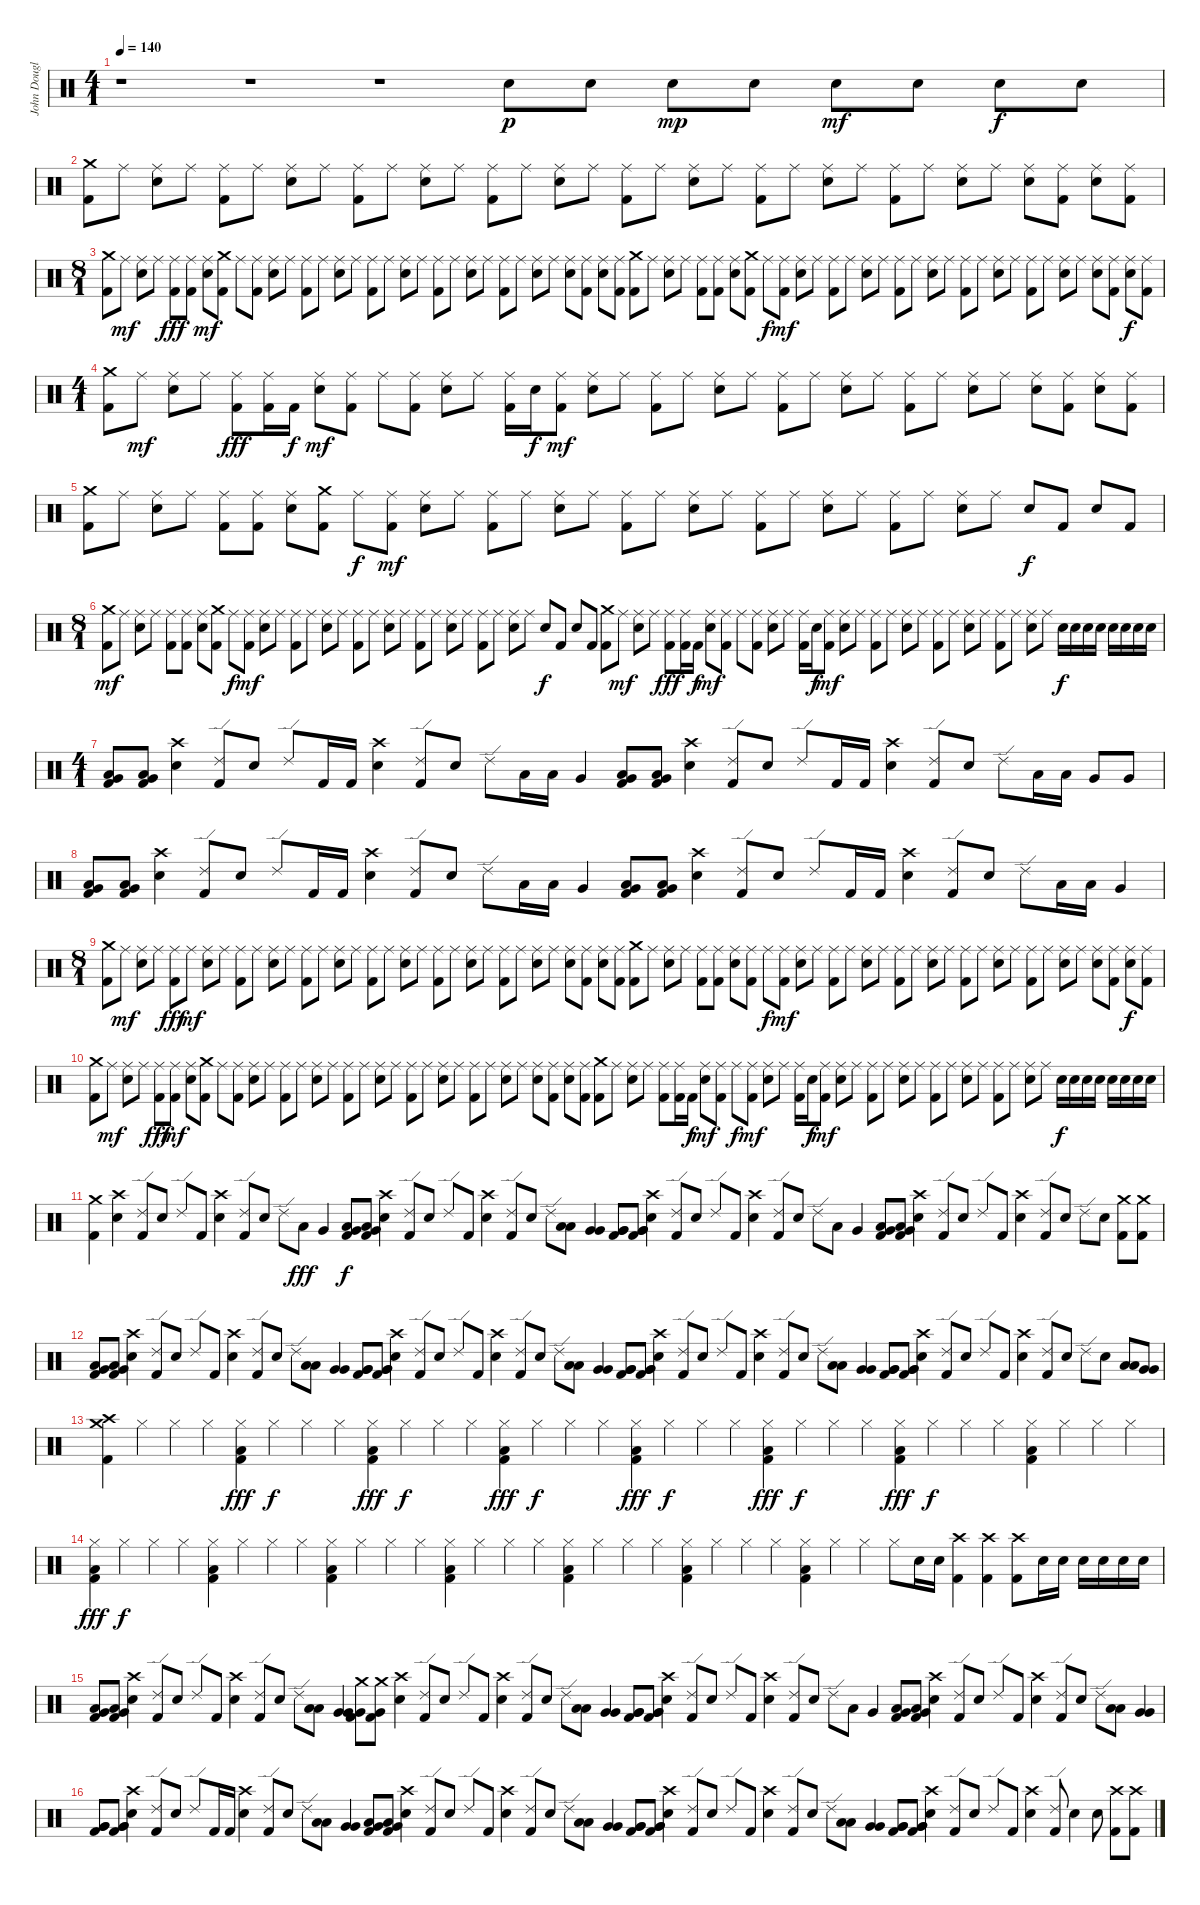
\track ("John Douglas" "John Dougl") {instrument percussion}
\staff {score}
\articulation defaults
\ts (4 1)
\tempo 140
\clef neutral
\ks c
r.1{dy p} r.1 r.1 "Electric Snare (hit)".8 "Electric Snare (hit)".8 "Electric Snare (hit)".8{dy mp} "Electric Snare (hit)".8 "Electric Snare (hit)".8{dy mf} "Electric Snare (hit)".8 "Electric Snare (hit)".8{dy f} "Electric Snare (hit)".8 |
("Crash medium (hit)" "Kick (hit) 2").8 "Ride (middle)".8 ("Ride (middle)" "Electric Snare (hit)").8 "Ride (middle)".8 ("Ride (middle)" "Kick (hit) 2").8 "Ride (middle)".8 ("Ride (middle)" "Electric Snare (hit)").8 "Ride (middle)".8 ("Ride (middle)" "Kick (hit) 2").8 "Ride (middle)".8 ("Ride (middle)" "Electric Snare (hit)").8 "Ride (middle)".8 ("Ride (middle)" "Kick (hit) 2").8 "Ride (middle)".8 ("Ride (middle)" "Electric Snare (hit)").8 "Ride (middle)".8 ("Ride (middle)" "Kick (hit) 2").8 "Ride (middle)".8 ("Ride (middle)" "Electric Snare (hit)").8 "Ride (middle)".8 ("Ride (middle)" "Kick (hit) 2").8 "Ride (middle)".8 ("Ride (middle)" "Electric Snare (hit)").8 "Ride (middle)".8 ("Ride (middle)" "Kick (hit) 2").8 "Ride (middle)".8 ("Ride (middle)" "Electric Snare (hit)").8 "Ride (middle)".8 ("Ride (middle)" "Electric Snare (hit)").8 ("Ride (middle)" "Kick (hit) 2").8 ("Ride (middle)" "Electric Snare (hit)").8 ("Ride (middle)" "Kick (hit) 2").8 |
\ts (8 1)
("Crash medium (hit)" "Kick (hit) 2").8 "Ride (middle)".8{dy mf} ("Ride (middle)" "Electric Snare (hit)").8 "Ride (middle)".8 ("Ride (middle)" "Kick (hit) 2").8{dy fff} ("Ride (middle)" "Kick (hit) 2").8 ("Ride (middle)" "Electric Snare (hit)").8{dy mf} ("Crash medium (hit)" "Kick (hit) 2").8 "Ride (middle)".8 ("Ride (middle)" "Kick (hit) 2").8 ("Ride (middle)" "Electric Snare (hit)").8 "Ride (middle)".8 ("Ride (middle)" "Kick (hit) 2").8 "Ride (middle)".8 ("Ride (middle)" "Electric Snare (hit)").8 "Ride (middle)".8 ("Ride (middle)" "Kick (hit) 2").8 "Ride (middle)".8 ("Ride (middle)" "Electric Snare (hit)").8 "Ride (middle)".8 ("Ride (middle)" "Kick (hit) 2").8 "Ride (middle)".8 ("Ride (middle)" "Electric Snare (hit)").8 "Ride (middle)".8 ("Ride (middle)" "Kick (hit) 2").8 "Ride (middle)".8 ("Ride (middle)" "Electric Snare (hit)").8 "Ride (middle)".8 ("Ride (middle)" "Electric Snare (hit)").8 ("Ride (middle)" "Kick (hit) 2").8 ("Ride (middle)" "Electric Snare (hit)").8 ("Ride (middle)" "Kick (hit) 2").8 ("Crash medium (hit)" "Kick (hit) 2").8 "Ride (middle)".8 ("Ride (middle)" "Electric Snare (hit)").8 "Ride (middle)".8 ("Ride (middle)" "Kick (hit) 2").8 ("Ride (middle)" "Kick (hit) 2").8 ("Ride (middle)" "Electric Snare (hit)").8 ("Crash medium (hit)" "Kick (hit) 2").8 "Ride (middle)".8{dy f} ("Ride (middle)" "Kick (hit) 2").8{dy mf} ("Ride (middle)" "Electric Snare (hit)").8 "Ride (middle)".8 ("Ride (middle)" "Kick (hit) 2").8 "Ride (middle)".8 ("Ride (middle)" "Electric Snare (hit)").8 "Ride (middle)".8 ("Ride (middle)" "Kick (hit) 2").8 "Ride (middle)".8 ("Ride (middle)" "Electric Snare (hit)").8 "Ride (middle)".8 ("Ride (middle)" "Kick (hit) 2").8 "Ride (middle)".8 ("Ride (middle)" "Electric Snare (hit)").8 "Ride (middle)".8 ("Ride (middle)" "Kick (hit) 2").8 "Ride (middle)".8 ("Ride (middle)" "Electric Snare (hit)").8 "Ride (middle)".8 ("Ride (middle)" "Electric Snare (hit)").8 ("Ride (middle)" "Kick (hit) 2").8 ("Ride (middle)" "Electric Snare (hit)").8{dy f} ("Ride (middle)" "Kick (hit) 2").8 |
\ts (4 1)
("Crash medium (hit)" "Kick (hit) 2").8 "Ride (middle)".8{dy mf} ("Ride (middle)" "Electric Snare (hit)").8 "Ride (middle)".8 ("Ride (middle)" "Kick (hit) 2").8{dy fff} ("Ride (middle)" "Kick (hit) 2").16 "Kick (hit) 2".16{dy f} ("Ride (middle)" "Electric Snare (hit)").8{dy mf} ("Ride (middle)" "Kick (hit) 2").8 "Ride (middle)".8 ("Ride (middle)" "Kick (hit) 2").8 ("Ride (middle)" "Electric Snare (hit)").8 "Ride (middle)".8 ("Ride (middle)" "Kick (hit) 2").16 "Electric Snare (hit)".16{dy f} ("Ride (middle)" "Kick (hit) 2").8{dy mf} ("Ride (middle)" "Electric Snare (hit)").8 "Ride (middle)".8 ("Ride (middle)" "Kick (hit) 2").8 "Ride (middle)".8 ("Ride (middle)" "Electric Snare (hit)").8 "Ride (middle)".8 ("Ride (middle)" "Kick (hit) 2").8 "Ride (middle)".8 ("Ride (middle)" "Electric Snare (hit)").8 "Ride (middle)".8 ("Ride (middle)" "Kick (hit) 2").8 "Ride (middle)".8 ("Ride (middle)" "Electric Snare (hit)").8 "Ride (middle)".8 ("Ride (middle)" "Electric Snare (hit)").8 ("Ride (middle)" "Kick (hit) 2").8 ("Ride (middle)" "Electric Snare (hit)").8 ("Ride (middle)" "Kick (hit) 2").8 |
("Crash medium (hit)" "Kick (hit) 2").8 "Ride (middle)".8 ("Ride (middle)" "Electric Snare (hit)").8 "Ride (middle)".8 ("Ride (middle)" "Kick (hit) 2").8 ("Ride (middle)" "Kick (hit) 2").8 ("Ride (middle)" "Electric Snare (hit)").8 ("Crash medium (hit)" "Kick (hit) 2").8 "Ride (middle)".8{dy f} ("Ride (middle)" "Kick (hit) 2").8{dy mf} ("Ride (middle)" "Electric Snare (hit)").8 "Ride (middle)".8 ("Ride (middle)" "Kick (hit) 2").8 "Ride (middle)".8 ("Ride (middle)" "Electric Snare (hit)").8 "Ride (middle)".8 ("Ride (middle)" "Kick (hit) 2").8 "Ride (middle)".8 ("Ride (middle)" "Electric Snare (hit)").8 "Ride (middle)".8 ("Ride (middle)" "Kick (hit) 2").8 "Ride (middle)".8 ("Ride (middle)" "Electric Snare (hit)").8 "Ride (middle)".8 ("Ride (middle)" "Kick (hit) 2").8 "Ride (middle)".8 ("Ride (middle)" "Electric Snare (hit)").8 "Ride (middle)".8 "Electric Snare (hit)".8{dy f} "Kick (hit) 2".8 "Electric Snare (hit)".8 "Kick (hit) 2".8 |
\ts (8 1)
("Crash medium (hit)" "Kick (hit) 2").8{dy mf} "Ride (middle)".8 ("Ride (middle)" "Electric Snare (hit)").8 "Ride (middle)".8 ("Ride (middle)" "Kick (hit) 2").8 ("Ride (middle)" "Kick (hit) 2").8 ("Ride (middle)" "Electric Snare (hit)").8 ("Crash medium (hit)" "Kick (hit) 2").8 "Ride (middle)".8{dy f} ("Ride (middle)" "Kick (hit) 2").8{dy mf} ("Ride (middle)" "Electric Snare (hit)").8 "Ride (middle)".8 ("Ride (middle)" "Kick (hit) 2").8 "Ride (middle)".8 ("Ride (middle)" "Electric Snare (hit)").8 "Ride (middle)".8 ("Ride (middle)" "Kick (hit) 2").8 "Ride (middle)".8 ("Ride (middle)" "Electric Snare (hit)").8 "Ride (middle)".8 ("Ride (middle)" "Kick (hit) 2").8 "Ride (middle)".8 ("Ride (middle)" "Electric Snare (hit)").8 "Ride (middle)".8 ("Ride (middle)" "Kick (hit) 2").8 "Ride (middle)".8 ("Ride (middle)" "Electric Snare (hit)").8 "Ride (middle)".8 "Electric Snare (hit)".8{dy f} "Kick (hit) 2".8 "Electric Snare (hit)".8 "Kick (hit) 2".8 ("Crash medium (hit)" "Kick (hit) 2").8 "Ride (middle)".8{dy mf} ("Ride (middle)" "Electric Snare (hit)").8 "Ride (middle)".8 ("Ride (middle)" "Kick (hit) 2").8{dy fff} ("Ride (middle)" "Kick (hit) 2").16 "Kick (hit) 2".16{dy f} ("Ride (middle)" "Electric Snare (hit)").8{dy mf} ("Ride (middle)" "Kick (hit) 2").8 "Ride (middle)".8 ("Ride (middle)" "Kick (hit) 2").8 ("Ride (middle)" "Electric Snare (hit)").8 "Ride (middle)".8 ("Ride (middle)" "Kick (hit) 2").16 "Electric Snare (hit)".16{dy f} ("Ride (middle)" "Kick (hit) 2").8{dy mf} ("Ride (middle)" "Electric Snare (hit)").8 "Ride (middle)".8 ("Ride (middle)" "Kick (hit) 2").8 "Ride (middle)".8 ("Ride (middle)" "Electric Snare (hit)").8 "Ride (middle)".8 ("Ride (middle)" "Kick (hit) 2").8 "Ride (middle)".8 ("Ride (middle)" "Electric Snare (hit)").8 "Ride (middle)".8 ("Ride (middle)" "Kick (hit) 2").8 "Ride (middle)".8 ("Ride (middle)" "Electric Snare (hit)").8 "Ride (middle)".8 "Electric Snare (hit)".16{dy f} "Electric Snare (hit)".16 "Electric Snare (hit)".16 "Electric Snare (hit)".16 "Electric Snare (hit)".16 "Electric Snare (hit)".16 "Electric Snare (hit)".16 "Electric Snare (hit)".16 |
\ts (4 1)
("Low Floor Tom (hit)" "Very Low Tom (hit)" "Kick (hit) 2").8 ("Low Floor Tom (hit)" "Very Low Tom (hit)" "Kick (hit) 2").8 ("Crash high (hit)" "Electric Snare (hit)").4 ("Ride (edge) 2" "Kick (hit) 2").8 "Electric Snare (hit)".8 "Ride (edge) 2".8 "Kick (hit) 2".16 "Kick (hit) 2".16 ("Crash high (hit)" "Electric Snare (hit)").4 ("Ride (edge) 2" "Kick (hit) 2").8 "Electric Snare (hit)".8 "Ride (edge) 2".8 "Low Tom (hit)".16 "Low Tom (hit)".16 "Very Low Tom (hit)".4 ("Low Floor Tom (hit)" "Very Low Tom (hit)" "Kick (hit) 2").8 ("Low Floor Tom (hit)" "Very Low Tom (hit)" "Kick (hit) 2").8 ("Crash high (hit)" "Electric Snare (hit)").4 ("Ride (edge) 2" "Kick (hit) 2").8 "Electric Snare (hit)".8 "Ride (edge) 2".8 "Kick (hit) 2".16 "Kick (hit) 2".16 ("Crash high (hit)" "Electric Snare (hit)").4 ("Ride (edge) 2" "Kick (hit) 2").8 "Electric Snare (hit)".8 "Ride (edge) 2".8 "Low Tom (hit)".16 "Low Tom (hit)".16 "Very Low Tom (hit)".8 "Very Low Tom (hit)".8 |
("Low Floor Tom (hit)" "Very Low Tom (hit)" "Kick (hit) 2").8 ("Low Floor Tom (hit)" "Very Low Tom (hit)" "Kick (hit) 2").8 ("Crash high (hit)" "Electric Snare (hit)").4 ("Ride (edge) 2" "Kick (hit) 2").8 "Electric Snare (hit)".8 "Ride (edge) 2".8 "Kick (hit) 2".16 "Kick (hit) 2".16 ("Crash high (hit)" "Electric Snare (hit)").4 ("Ride (edge) 2" "Kick (hit) 2").8 "Electric Snare (hit)".8 "Ride (edge) 2".8 "Low Tom (hit)".16 "Low Tom (hit)".16 "Very Low Tom (hit)".4 ("Low Floor Tom (hit)" "Very Low Tom (hit)" "Kick (hit) 2").8 ("Low Floor Tom (hit)" "Very Low Tom (hit)" "Kick (hit) 2").8 ("Crash high (hit)" "Electric Snare (hit)").4 ("Ride (edge) 2" "Kick (hit) 2").8 "Electric Snare (hit)".8 "Ride (edge) 2".8 "Kick (hit) 2".16 "Kick (hit) 2".16 ("Crash high (hit)" "Electric Snare (hit)").4 ("Ride (edge) 2" "Kick (hit) 2").8 "Electric Snare (hit)".8 "Ride (edge) 2".8 "Low Tom (hit)".16 "Low Tom (hit)".16 "Very Low Tom (hit)".4 |
\ts (8 1)
("Crash medium (hit)" "Kick (hit) 2").8 "Ride (middle)".8{dy mf} ("Ride (middle)" "Electric Snare (hit)").8 "Ride (middle)".8 ("Ride (middle)" "Kick (hit) 2").8{dy fff} "Ride (middle)".8{dy mf} ("Ride (middle)" "Electric Snare (hit)").8 "Ride (middle)".8 ("Ride (middle)" "Kick (hit) 2").8 "Ride (middle)".8 ("Ride (middle)" "Electric Snare (hit)").8 "Ride (middle)".8 ("Ride (middle)" "Kick (hit) 2").8 "Ride (middle)".8 ("Ride (middle)" "Electric Snare (hit)").8 "Ride (middle)".8 ("Ride (middle)" "Kick (hit) 2").8 "Ride (middle)".8 ("Ride (middle)" "Electric Snare (hit)").8 "Ride (middle)".8 ("Ride (middle)" "Kick (hit) 2").8 "Ride (middle)".8 ("Ride (middle)" "Electric Snare (hit)").8 "Ride (middle)".8 ("Ride (middle)" "Kick (hit) 2").8 "Ride (middle)".8 ("Ride (middle)" "Electric Snare (hit)").8 "Ride (middle)".8 ("Ride (middle)" "Electric Snare (hit)").8 ("Ride (middle)" "Kick (hit) 2").8 ("Ride (middle)" "Electric Snare (hit)").8 ("Ride (middle)" "Kick (hit) 2").8 ("Crash medium (hit)" "Kick (hit) 2").8 "Ride (middle)".8 ("Ride (middle)" "Electric Snare (hit)").8 "Ride (middle)".8 ("Ride (middle)" "Kick (hit) 2").8 ("Ride (middle)" "Kick (hit) 2").8 ("Ride (middle)" "Electric Snare (hit)").8 ("Ride (middle)" "Kick (hit) 2").8 "Ride (middle)".8{dy f} ("Ride (middle)" "Kick (hit) 2").8{dy mf} ("Ride (middle)" "Electric Snare (hit)").8 "Ride (middle)".8 ("Ride (middle)" "Kick (hit) 2").8 "Ride (middle)".8 ("Ride (middle)" "Electric Snare (hit)").8 "Ride (middle)".8 ("Ride (middle)" "Kick (hit) 2").8 "Ride (middle)".8 ("Ride (middle)" "Electric Snare (hit)").8 "Ride (middle)".8 ("Ride (middle)" "Kick (hit) 2").8 "Ride (middle)".8 ("Ride (middle)" "Electric Snare (hit)").8 "Ride (middle)".8 ("Ride (middle)" "Kick (hit) 2").8 "Ride (middle)".8 ("Ride (middle)" "Electric Snare (hit)").8 "Ride (middle)".8 ("Ride (middle)" "Electric Snare (hit)").8 ("Ride (middle)" "Kick (hit) 2").8 ("Ride (middle)" "Electric Snare (hit)").8{dy f} ("Ride (middle)" "Kick (hit) 2").8 |
("Crash medium (hit)" "Kick (hit) 2").8 "Ride (middle)".8{dy mf} ("Ride (middle)" "Electric Snare (hit)").8 "Ride (middle)".8 ("Ride (middle)" "Kick (hit) 2").8{dy fff} ("Ride (middle)" "Kick (hit) 2").8{dy mf} ("Ride (middle)" "Electric Snare (hit)").8 ("Crash medium (hit)" "Kick (hit) 2").8 "Ride (middle)".8 ("Ride (middle)" "Kick (hit) 2").8 ("Ride (middle)" "Electric Snare (hit)").8 "Ride (middle)".8 ("Ride (middle)" "Kick (hit) 2").8 "Ride (middle)".8 ("Ride (middle)" "Electric Snare (hit)").8 "Ride (middle)".8 ("Ride (middle)" "Kick (hit) 2").8 "Ride (middle)".8 ("Ride (middle)" "Electric Snare (hit)").8 "Ride (middle)".8 ("Ride (middle)" "Kick (hit) 2").8 "Ride (middle)".8 ("Ride (middle)" "Electric Snare (hit)").8 "Ride (middle)".8 ("Ride (middle)" "Kick (hit) 2").8 "Ride (middle)".8 ("Ride (middle)" "Electric Snare (hit)").8 "Ride (middle)".8 ("Ride (middle)" "Electric Snare (hit)").8 ("Ride (middle)" "Kick (hit) 2").8 ("Ride (middle)" "Electric Snare (hit)").8 ("Ride (middle)" "Kick (hit) 2").8 ("Crash medium (hit)" "Kick (hit) 2").8 "Ride (middle)".8 ("Ride (middle)" "Electric Snare (hit)").8 "Ride (middle)".8 ("Ride (middle)" "Kick (hit) 2").8 ("Ride (middle)" "Kick (hit) 2").16 "Kick (hit) 2".16{dy f} ("Ride (middle)" "Electric Snare (hit)").8{dy mf} ("Ride (middle)" "Kick (hit) 2").8 "Ride (middle)".8{dy f} ("Ride (middle)" "Kick (hit) 2").8{dy mf} ("Ride (middle)" "Electric Snare (hit)").8 "Ride (middle)".8 ("Ride (middle)" "Kick (hit) 2").16 "Electric Snare (hit)".16{dy f} ("Ride (middle)" "Kick (hit) 2").8{dy mf} ("Ride (middle)" "Electric Snare (hit)").8 "Ride (middle)".8 ("Ride (middle)" "Kick (hit) 2").8 "Ride (middle)".8 ("Ride (middle)" "Electric Snare (hit)").8 "Ride (middle)".8 ("Ride (middle)" "Kick (hit) 2").8 "Ride (middle)".8 ("Ride (middle)" "Electric Snare (hit)").8 "Ride (middle)".8 ("Ride (middle)" "Kick (hit) 2").8 "Ride (middle)".8 ("Ride (middle)" "Electric Snare (hit)").8 "Ride (middle)".8 "Electric Snare (hit)".16{dy f} "Electric Snare (hit)".16 "Electric Snare (hit)".16 "Electric Snare (hit)".16 "Electric Snare (hit)".16 "Electric Snare (hit)".16 "Electric Snare (hit)".16 "Electric Snare (hit)".16 |
("Crash medium (hit)" "Kick (hit) 2").4 ("Crash high (hit)" "Electric Snare (hit)").4 ("Ride (edge) 2" "Kick (hit) 2").8 "Electric Snare (hit)".8 "Ride (edge) 2".8 "Kick (hit) 2".8 ("Crash high (hit)" "Electric Snare (hit)").4 ("Ride (edge) 2" "Kick (hit) 2").8 "Electric Snare (hit)".8 "Ride (edge) 2".8 "Low Tom (hit)".8{dy fff} "Very Low Tom (hit)".4 ("Low Floor Tom (hit)" "Very Low Tom (hit)" "Kick (hit) 2").8{dy f} ("Low Floor Tom (hit)" "Very Low Tom (hit)" "Kick (hit) 2").8 ("Crash high (hit)" "Electric Snare (hit)").4 ("Ride (edge) 2" "Kick (hit) 2").8 "Electric Snare (hit)".8 "Ride (edge) 2".8 "Kick (hit) 2".8 ("Crash high (hit)" "Electric Snare (hit)").4 ("Ride (edge) 2" "Kick (hit) 2").8 "Electric Snare (hit)".8 "Ride (edge) 2".8 ("Low Tom (hit)" "Low Tom (hit)").8 ("Very Low Tom (hit)" "Very Low Tom (hit)").4 ("Very Low Tom (hit)" "Very Low Tom (hit)" "Kick (hit) 2").8 ("Very Low Tom (hit)" "Very Low Tom (hit)" "Kick (hit) 2").8 ("Crash high (hit)" "Electric Snare (hit)").4 ("Ride (edge) 2" "Kick (hit) 2").8 "Electric Snare (hit)".8 "Ride (edge) 2".8 "Kick (hit) 2".8 ("Crash high (hit)" "Electric Snare (hit)").4 ("Ride (edge) 2" "Kick (hit) 2").8 "Electric Snare (hit)".8 "Ride (edge) 2".8 "Low Tom (hit)".8 "Very Low Tom (hit)".4 ("Low Floor Tom (hit)" "Very Low Tom (hit)" "Kick (hit) 2").8 ("Low Floor Tom (hit)" "Very Low Tom (hit)" "Kick (hit) 2").8 ("Crash high (hit)" "Electric Snare (hit)").4 ("Ride (edge) 2" "Kick (hit) 2").8 "Electric Snare (hit)".8 "Ride (edge) 2".8 "Kick (hit) 2".8 ("Crash high (hit)" "Electric Snare (hit)").4 ("Ride (edge) 2" "Kick (hit) 2").8 "Electric Snare (hit)".8 "Ride (edge) 2".8 "Electric Snare (hit)".8 ("Crash medium (hit)" "Kick (hit) 2").8 ("Crash medium (hit)" "Kick (hit) 2").8 |
("Low Floor Tom (hit)" "Very Low Tom (hit)" "Kick (hit) 2").8 ("Low Floor Tom (hit)" "Very Low Tom (hit)" "Kick (hit) 2").8 ("Crash high (hit)" "Electric Snare (hit)").4 ("Ride (edge) 2" "Kick (hit) 2").8 "Electric Snare (hit)".8 "Ride (edge) 2".8 "Kick (hit) 2".8 ("Crash high (hit)" "Electric Snare (hit)").4 ("Ride (edge) 2" "Kick (hit) 2").8 "Electric Snare (hit)".8 "Ride (edge) 2".8 ("Low Tom (hit)" "Low Tom (hit)").8 ("Very Low Tom (hit)" "Very Low Tom (hit)").4 ("Very Low Tom (hit)" "Very Low Tom (hit)" "Kick (hit) 2").8 ("Very Low Tom (hit)" "Very Low Tom (hit)" "Kick (hit) 2").8 ("Crash high (hit)" "Electric Snare (hit)").4 ("Ride (edge) 2" "Kick (hit) 2").8 "Electric Snare (hit)".8 "Ride (edge) 2".8 "Kick (hit) 2".8 ("Crash high (hit)" "Electric Snare (hit)").4 ("Ride (edge) 2" "Kick (hit) 2").8 "Electric Snare (hit)".8 "Ride (edge) 2".8 ("Low Tom (hit)" "Low Tom (hit)").8 ("Very Low Tom (hit)" "Very Low Tom (hit)").4 ("Very Low Tom (hit)" "Very Low Tom (hit)" "Kick (hit) 2").8 ("Very Low Tom (hit)" "Very Low Tom (hit)" "Kick (hit) 2").8 ("Crash high (hit)" "Electric Snare (hit)").4 ("Ride (edge) 2" "Kick (hit) 2").8 "Electric Snare (hit)".8 "Ride (edge) 2".8 "Kick (hit) 2".8 ("Crash high (hit)" "Electric Snare (hit)").4 ("Ride (edge) 2" "Kick (hit) 2").8 "Electric Snare (hit)".8 "Ride (edge) 2".8 ("Low Tom (hit)" "Low Tom (hit)").8 ("Very Low Tom (hit)" "Very Low Tom (hit)").4 ("Very Low Tom (hit)" "Very Low Tom (hit)" "Kick (hit) 2").8 ("Very Low Tom (hit)" "Very Low Tom (hit)" "Kick (hit) 2").8 ("Crash high (hit)" "Electric Snare (hit)").4 ("Ride (edge) 2" "Kick (hit) 2").8 "Electric Snare (hit)".8 "Ride (edge) 2".8 "Kick (hit) 2".8 ("Crash high (hit)" "Electric Snare (hit)").4 ("Ride (edge) 2" "Kick (hit) 2").8 "Electric Snare (hit)".8 "Ride (edge) 2".8 "Electric Snare (hit)".8 ("Low Tom (hit)" "Low Tom (hit)").8 ("Very Low Tom (hit)" "Very Low Tom (hit)").8 |
("Crash high (hit)" "Crash medium (hit)" "Kick (hit) 2").4 "Hi-Hat (closed)".4 "Hi-Hat (closed)".4 "Hi-Hat (closed)".4 ("Hi-Hat (closed)" "Low Floor Tom (hit)" "Kick (hit) 2").4{dy fff} "Hi-Hat (closed)".4{dy f} "Hi-Hat (closed)".4 "Hi-Hat (closed)".4 ("Hi-Hat (closed)" "Low Floor Tom (hit)" "Kick (hit) 2").4{dy fff} "Hi-Hat (closed)".4{dy f} "Hi-Hat (closed)".4 "Hi-Hat (closed)".4 ("Hi-Hat (closed)" "Low Floor Tom (hit)" "Kick (hit) 2").4{dy fff} "Hi-Hat (closed)".4{dy f} "Hi-Hat (closed)".4 "Hi-Hat (closed)".4 ("Hi-Hat (closed)" "Low Floor Tom (hit)" "Kick (hit) 2").4{dy fff} "Hi-Hat (closed)".4{dy f} "Hi-Hat (closed)".4 "Hi-Hat (closed)".4 ("Hi-Hat (closed)" "Low Floor Tom (hit)" "Kick (hit) 2").4{dy fff} "Hi-Hat (closed)".4{dy f} "Hi-Hat (closed)".4 "Hi-Hat (closed)".4 ("Hi-Hat (closed)" "Low Floor Tom (hit)" "Kick (hit) 2").4{dy fff} "Hi-Hat (closed)".4{dy f} "Hi-Hat (closed)".4 "Hi-Hat (closed)".4 ("Hi-Hat (closed)" "Low Floor Tom (hit)" "Kick (hit) 2").4 "Hi-Hat (closed)".4 "Hi-Hat (closed)".4 "Hi-Hat (closed)".4 |
("Hi-Hat (closed)" "Low Floor Tom (hit)" "Kick (hit) 2").4{dy fff} "Hi-Hat (closed)".4{dy f} "Hi-Hat (closed)".4 "Hi-Hat (closed)".4 ("Hi-Hat (closed)" "Low Floor Tom (hit)" "Kick (hit) 2").4 "Hi-Hat (closed)".4 "Hi-Hat (closed)".4 "Hi-Hat (closed)".4 ("Hi-Hat (closed)" "Low Floor Tom (hit)" "Kick (hit) 2").4 "Hi-Hat (closed)".4 "Hi-Hat (closed)".4 "Hi-Hat (closed)".4 ("Hi-Hat (closed)" "Low Floor Tom (hit)" "Kick (hit) 2").4 "Hi-Hat (closed)".4 "Hi-Hat (closed)".4 "Hi-Hat (closed)".4 ("Hi-Hat (closed)" "Low Floor Tom (hit)" "Kick (hit) 2").4 "Hi-Hat (closed)".4 "Hi-Hat (closed)".4 "Hi-Hat (closed)".4 ("Hi-Hat (closed)" "Low Floor Tom (hit)" "Kick (hit) 2").4 "Hi-Hat (closed)".4 "Hi-Hat (closed)".4 "Hi-Hat (closed)".4 ("Hi-Hat (closed)" "Low Floor Tom (hit)" "Kick (hit) 2").4 "Hi-Hat (closed)".4 "Hi-Hat (closed)".4 "Hi-Hat (closed)".8 "Electric Snare (hit)".16 "Electric Snare (hit)".16 ("Crash high (hit)" "Kick (hit) 2").4 ("Crash high (hit)" "Kick (hit) 2").4 ("Crash high (hit)" "Kick (hit) 2").8 "Electric Snare (hit)".16 "Electric Snare (hit)".16 "Electric Snare (hit)".16 "Electric Snare (hit)".16 "Electric Snare (hit)".16 "Electric Snare (hit)".16 |
("Low Floor Tom (hit)" "Very Low Tom (hit)" "Kick (hit) 2").8 ("Low Floor Tom (hit)" "Very Low Tom (hit)" "Kick (hit) 2").8 ("Crash high (hit)" "Electric Snare (hit)").4 ("Ride (edge) 2" "Kick (hit) 2").8 "Electric Snare (hit)".8 "Ride (edge) 2".8 "Kick (hit) 2".8 ("Crash high (hit)" "Electric Snare (hit)").4 ("Ride (edge) 2" "Kick (hit) 2").8 "Electric Snare (hit)".8 "Ride (edge) 2".8 ("Low Tom (hit)" "Low Tom (hit)").8 ("Very Low Tom (hit)" "Very Low Tom (hit)").4 ("Crash medium (hit)" "Very Low Tom (hit)" "Kick (hit) 2").8 ("Crash medium (hit)" "Very Low Tom (hit)" "Kick (hit) 2").8 ("Crash high (hit)" "Electric Snare (hit)").4 ("Ride (edge) 2" "Kick (hit) 2").8 "Electric Snare (hit)".8 "Ride (edge) 2".8 "Kick (hit) 2".8 ("Crash high (hit)" "Electric Snare (hit)").4 ("Ride (edge) 2" "Kick (hit) 2").8 "Electric Snare (hit)".8 "Ride (edge) 2".8 ("Low Tom (hit)" "Low Tom (hit)").8 ("Very Low Tom (hit)" "Very Low Tom (hit)").4 ("Very Low Tom (hit)" "Very Low Tom (hit)" "Kick (hit) 2").8 ("Very Low Tom (hit)" "Very Low Tom (hit)" "Kick (hit) 2").8 ("Crash high (hit)" "Electric Snare (hit)").4 ("Ride (edge) 2" "Kick (hit) 2").8 "Electric Snare (hit)".8 "Ride (edge) 2".8 "Kick (hit) 2".8 ("Crash high (hit)" "Electric Snare (hit)").4 ("Ride (edge) 2" "Kick (hit) 2").8 "Electric Snare (hit)".8 "Ride (edge) 2".8 "Low Tom (hit)".8 "Very Low Tom (hit)".4 ("Low Floor Tom (hit)" "Very Low Tom (hit)" "Kick (hit) 2").8 ("Low Floor Tom (hit)" "Very Low Tom (hit)" "Kick (hit) 2").8 ("Crash high (hit)" "Electric Snare (hit)").4 ("Ride (edge) 2" "Kick (hit) 2").8 "Electric Snare (hit)".8 "Ride (edge) 2".8 "Kick (hit) 2".8 ("Crash high (hit)" "Electric Snare (hit)").4 ("Ride (edge) 2" "Kick (hit) 2").8 "Electric Snare (hit)".8 "Ride (edge) 2".8 ("Low Tom (hit)" "Low Tom (hit)").8 ("Very Low Tom (hit)" "Very Low Tom (hit)").4 |
("Very Low Tom (hit)" "Very Low Tom (hit)" "Kick (hit) 2").8 ("Very Low Tom (hit)" "Very Low Tom (hit)" "Kick (hit) 2").8 ("Crash high (hit)" "Electric Snare (hit)").4 ("Ride (edge) 2" "Kick (hit) 2").8 "Electric Snare (hit)".8 "Ride (edge) 2".8 "Kick (hit) 2".16 "Kick (hit) 2".16 ("Crash high (hit)" "Electric Snare (hit)").4 ("Ride (edge) 2" "Kick (hit) 2").8 "Electric Snare (hit)".8 "Ride (edge) 2".8 ("Low Tom (hit)" "Low Tom (hit)").8 ("Very Low Tom (hit)" "Very Low Tom (hit)").4 ("Low Floor Tom (hit)" "Very Low Tom (hit)" "Kick (hit) 2").8 ("Low Floor Tom (hit)" "Very Low Tom (hit)" "Kick (hit) 2").8 ("Crash high (hit)" "Electric Snare (hit)").4 ("Ride (edge) 2" "Kick (hit) 2").8 "Electric Snare (hit)".8 "Ride (edge) 2".8 "Kick (hit) 2".8 ("Crash high (hit)" "Electric Snare (hit)").4 ("Ride (edge) 2" "Kick (hit) 2").8 "Electric Snare (hit)".8 "Ride (edge) 2".8 ("Low Tom (hit)" "Low Tom (hit)").8 ("Very Low Tom (hit)" "Very Low Tom (hit)").4 ("Very Low Tom (hit)" "Very Low Tom (hit)" "Kick (hit) 2").8 ("Very Low Tom (hit)" "Very Low Tom (hit)" "Kick (hit) 2").8 ("Crash high (hit)" "Electric Snare (hit)").4 ("Ride (edge) 2" "Kick (hit) 2").8 "Electric Snare (hit)".8 "Ride (edge) 2".8 "Kick (hit) 2".8 ("Crash high (hit)" "Electric Snare (hit)").4 ("Ride (edge) 2" "Kick (hit) 2").8 "Electric Snare (hit)".8 "Ride (edge) 2".8 ("Low Tom (hit)" "Low Tom (hit)").8 ("Very Low Tom (hit)" "Very Low Tom (hit)").4 ("Very Low Tom (hit)" "Very Low Tom (hit)" "Kick (hit) 2").8 ("Very Low Tom (hit)" "Very Low Tom (hit)" "Kick (hit) 2").8 ("Crash high (hit)" "Electric Snare (hit)").4 ("Ride (edge) 2" "Kick (hit) 2").8 "Electric Snare (hit)".8 "Ride (edge) 2".8 "Kick (hit) 2".8 ("Crash high (hit)" "Electric Snare (hit)").4 ("Ride (edge) 2" "Kick (hit) 2").8 "Electric Snare (hit)".4 "Electric Snare (hit)".8 ("Crash high (hit)" "Kick (hit) 2").8 ("Crash high (hit)" "Kick (hit) 2").8
